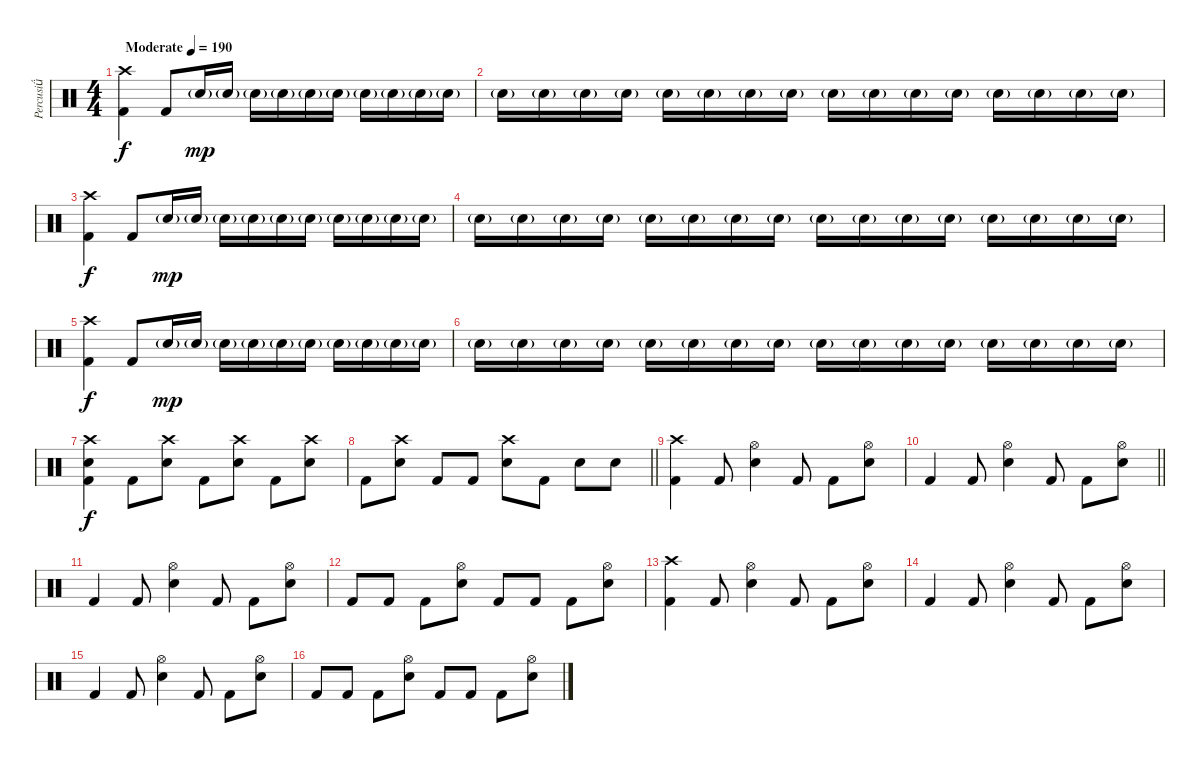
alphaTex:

\track ("Percusi" "Percusi") {instrument percussion}
\staff {score}
\articulation defaults
\ts (4 4)
\section ("" "")
\tempo (190 "Moderate")
\clef neutral
\ks c
("Crash high (hit)" "Kick (hit) 2").4{dy f} "Kick (hit) 2".8 "Electric Snare (hit)"{g}.16{dy mp} "Electric Snare (hit)"{g}.16 "Electric Snare (hit)"{g}.16 "Electric Snare (hit)"{g}.16 "Electric Snare (hit)"{g}.16 "Electric Snare (hit)"{g}.16 "Electric Snare (hit)"{g}.16 "Electric Snare (hit)"{g}.16 "Electric Snare (hit)"{g}.16 "Electric Snare (hit)"{g}.16 |
"Electric Snare (hit)"{g}.16 "Electric Snare (hit)"{g}.16 "Electric Snare (hit)"{g}.16 "Electric Snare (hit)"{g}.16 "Electric Snare (hit)"{g}.16 "Electric Snare (hit)"{g}.16 "Electric Snare (hit)"{g}.16 "Electric Snare (hit)"{g}.16 "Electric Snare (hit)"{g}.16 "Electric Snare (hit)"{g}.16 "Electric Snare (hit)"{g}.16 "Electric Snare (hit)"{g}.16 "Electric Snare (hit)"{g}.16 "Electric Snare (hit)"{g}.16 "Electric Snare (hit)"{g}.16 "Electric Snare (hit)"{g}.16 |
("Crash high (hit)" "Kick (hit) 2").4{dy f} "Kick (hit) 2".8 "Electric Snare (hit)"{g}.16{dy mp} "Electric Snare (hit)"{g}.16 "Electric Snare (hit)"{g}.16 "Electric Snare (hit)"{g}.16 "Electric Snare (hit)"{g}.16 "Electric Snare (hit)"{g}.16 "Electric Snare (hit)"{g}.16 "Electric Snare (hit)"{g}.16 "Electric Snare (hit)"{g}.16 "Electric Snare (hit)"{g}.16 |
"Electric Snare (hit)"{g}.16 "Electric Snare (hit)"{g}.16 "Electric Snare (hit)"{g}.16 "Electric Snare (hit)"{g}.16 "Electric Snare (hit)"{g}.16 "Electric Snare (hit)"{g}.16 "Electric Snare (hit)"{g}.16 "Electric Snare (hit)"{g}.16 "Electric Snare (hit)"{g}.16 "Electric Snare (hit)"{g}.16 "Electric Snare (hit)"{g}.16 "Electric Snare (hit)"{g}.16 "Electric Snare (hit)"{g}.16 "Electric Snare (hit)"{g}.16 "Electric Snare (hit)"{g}.16 "Electric Snare (hit)"{g}.16 |
("Crash high (hit)" "Kick (hit) 2").4{dy f} "Kick (hit) 2".8 "Electric Snare (hit)"{g}.16{dy mp} "Electric Snare (hit)"{g}.16 "Electric Snare (hit)"{g}.16 "Electric Snare (hit)"{g}.16 "Electric Snare (hit)"{g}.16 "Electric Snare (hit)"{g}.16 "Electric Snare (hit)"{g}.16 "Electric Snare (hit)"{g}.16 "Electric Snare (hit)"{g}.16 "Electric Snare (hit)"{g}.16 |
"Electric Snare (hit)"{g}.16 "Electric Snare (hit)"{g}.16 "Electric Snare (hit)"{g}.16 "Electric Snare (hit)"{g}.16 "Electric Snare (hit)"{g}.16 "Electric Snare (hit)"{g}.16 "Electric Snare (hit)"{g}.16 "Electric Snare (hit)"{g}.16 "Electric Snare (hit)"{g}.16 "Electric Snare (hit)"{g}.16 "Electric Snare (hit)"{g}.16 "Electric Snare (hit)"{g}.16 "Electric Snare (hit)"{g}.16 "Electric Snare (hit)"{g}.16 "Electric Snare (hit)"{g}.16 "Electric Snare (hit)"{g}.16 |
("Crash high (hit)" "Kick (hit) 2" "Electric Snare (hit)").4{dy f} "Kick (hit) 2".8 ("Crash high (hit)" "Electric Snare (hit)").8 "Kick (hit) 2".8 ("Crash high (hit)" "Electric Snare (hit)").8 "Kick (hit) 2".8 ("Crash high (hit)" "Electric Snare (hit)").8 |
\barLineRight lightlight "Kick (hit) 2".8
("Electric Snare (hit)" "Crash high (hit)").8 "Kick (hit) 2".8 "Kick (hit) 2".8 ("Electric Snare (hit)" "Crash high (hit)").8 "Kick (hit) 2".8 "Electric Snare (hit)".8 "Electric Snare (hit)".8 |
("Crash high (hit)" "Kick (hit) 2").4 "Kick (hit) 2".8 ("Hi-Hat (open)" "Electric Snare (hit)").4 "Kick (hit) 2".8 "Kick (hit) 2".8 ("Hi-Hat (open)" "Electric Snare (hit)").8 |
\barLineRight lightlight "Kick (hit) 2".4 "Kick (hit) 2".8
("Hi-Hat (open)" "Electric Snare (hit)").4 "Kick (hit) 2".8 "Kick (hit) 2".8 ("Hi-Hat (open)" "Electric Snare (hit)").8 |
\section ("" "")
"Kick (hit) 2".4 "Kick (hit) 2".8 ("Hi-Hat (open)" "Electric Snare (hit)").4 "Kick (hit) 2".8 "Kick (hit) 2".8 ("Hi-Hat (open)" "Electric Snare (hit)").8 |
"Kick (hit) 2".8 "Kick (hit) 2".8 "Kick (hit) 2".8 ("Hi-Hat (open)" "Electric Snare (hit)").8 "Kick (hit) 2".8 "Kick (hit) 2".8 "Kick (hit) 2".8 ("Hi-Hat (open)" "Electric Snare (hit)").8 |
("Crash high (hit)" "Kick (hit) 2").4 "Kick (hit) 2".8 ("Hi-Hat (open)" "Electric Snare (hit)").4 "Kick (hit) 2".8 "Kick (hit) 2".8 ("Hi-Hat (open)" "Electric Snare (hit)").8 |
"Kick (hit) 2".4 "Kick (hit) 2".8 ("Hi-Hat (open)" "Electric Snare (hit)").4 "Kick (hit) 2".8 "Kick (hit) 2".8 ("Hi-Hat (open)" "Electric Snare (hit)").8 |
"Kick (hit) 2".4 "Kick (hit) 2".8 ("Hi-Hat (open)" "Electric Snare (hit)").4 "Kick (hit) 2".8 "Kick (hit) 2".8 ("Hi-Hat (open)" "Electric Snare (hit)").8 |
"Kick (hit) 2".8 "Kick (hit) 2".8 "Kick (hit) 2".8 ("Hi-Hat (open)" "Electric Snare (hit)").8 "Kick (hit) 2".8 "Kick (hit) 2".8 "Kick (hit) 2".8 ("Hi-Hat (open)" "Electric Snare (hit)").8
